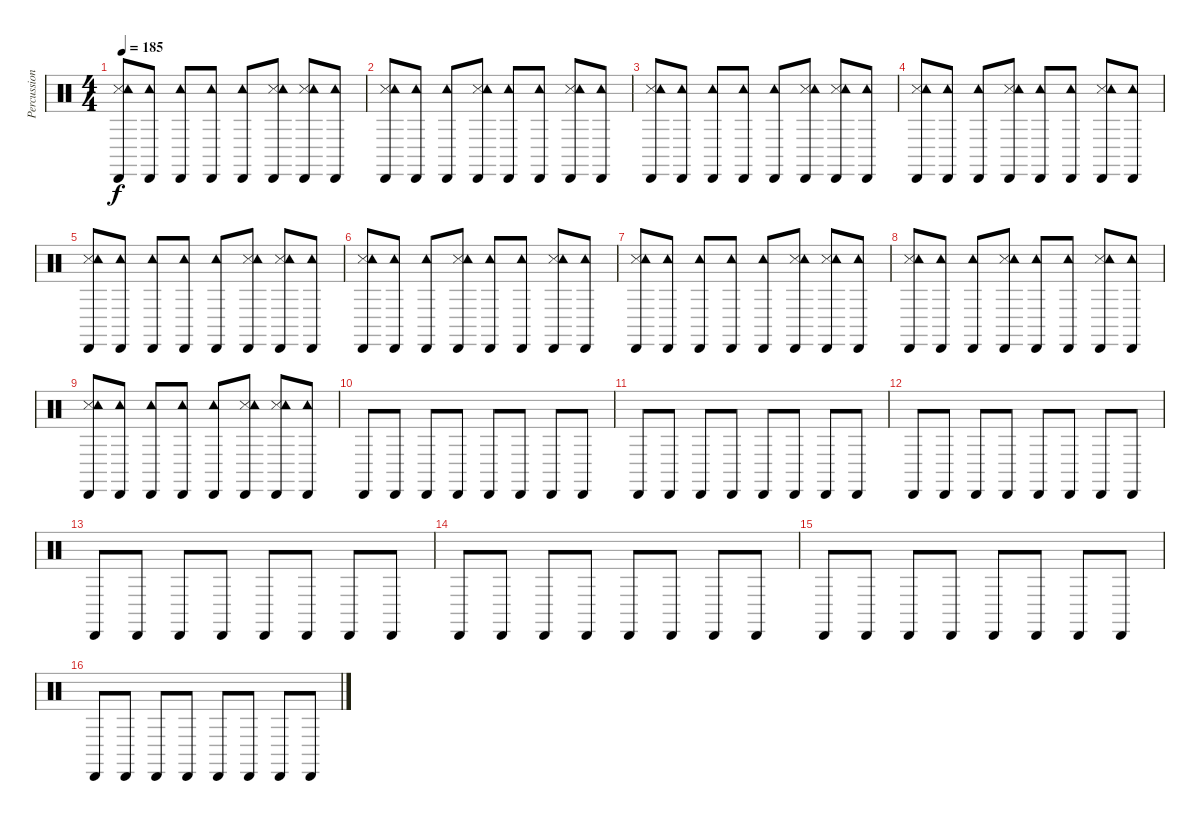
\track ("Percussion" "Percussion") {instrument percussion}
\staff {score}
\articulation defaults
\ts (4 4)
\tempo 185
\clef neutral
\ks c
("Cabasa (hit)" "Snare (side stick) 3" "Tambourine (hit)").8{dy f} ("Cabasa (hit)" "Tambourine (hit)").8 ("Cabasa (hit)" "Tambourine (hit)").8 ("Cabasa (hit)" "Tambourine (hit)").8 ("Cabasa (hit)" "Tambourine (hit)").8 ("Cabasa (hit)" "Snare (side stick) 3" "Tambourine (hit)").8 ("Cabasa (hit)" "Snare (side stick) 3" "Tambourine (hit)").8 ("Cabasa (hit)" "Tambourine (hit)").8 |
("Cabasa (hit)" "Snare (side stick) 3" "Tambourine (hit)").8 ("Cabasa (hit)" "Tambourine (hit)").8 ("Cabasa (hit)" "Tambourine (hit)").8 ("Cabasa (hit)" "Snare (side stick) 3" "Tambourine (hit)").8 ("Cabasa (hit)" "Tambourine (hit)").8 ("Cabasa (hit)" "Tambourine (hit)").8 ("Cabasa (hit)" "Snare (side stick) 3" "Tambourine (hit)").8 ("Cabasa (hit)" "Tambourine (hit)").8 |
("Cabasa (hit)" "Snare (side stick) 3" "Tambourine (hit)").8 ("Cabasa (hit)" "Tambourine (hit)").8 ("Cabasa (hit)" "Tambourine (hit)").8 ("Cabasa (hit)" "Tambourine (hit)").8 ("Cabasa (hit)" "Tambourine (hit)").8 ("Cabasa (hit)" "Snare (side stick) 3" "Tambourine (hit)").8 ("Cabasa (hit)" "Snare (side stick) 3" "Tambourine (hit)").8 ("Cabasa (hit)" "Tambourine (hit)").8 |
("Cabasa (hit)" "Snare (side stick) 3" "Tambourine (hit)").8 ("Cabasa (hit)" "Tambourine (hit)").8 ("Cabasa (hit)" "Tambourine (hit)").8 ("Cabasa (hit)" "Snare (side stick) 3" "Tambourine (hit)").8 ("Cabasa (hit)" "Tambourine (hit)").8 ("Cabasa (hit)" "Tambourine (hit)").8 ("Cabasa (hit)" "Snare (side stick) 3" "Tambourine (hit)").8 ("Cabasa (hit)" "Tambourine (hit)").8 |
("Cabasa (hit)" "Snare (side stick) 3" "Tambourine (hit)").8 ("Cabasa (hit)" "Tambourine (hit)").8 ("Cabasa (hit)" "Tambourine (hit)").8 ("Cabasa (hit)" "Tambourine (hit)").8 ("Cabasa (hit)" "Tambourine (hit)").8 ("Cabasa (hit)" "Snare (side stick) 3" "Tambourine (hit)").8 ("Cabasa (hit)" "Snare (side stick) 3" "Tambourine (hit)").8 ("Cabasa (hit)" "Tambourine (hit)").8 |
("Cabasa (hit)" "Snare (side stick) 3" "Tambourine (hit)").8 ("Cabasa (hit)" "Tambourine (hit)").8 ("Cabasa (hit)" "Tambourine (hit)").8 ("Cabasa (hit)" "Snare (side stick) 3" "Tambourine (hit)").8 ("Cabasa (hit)" "Tambourine (hit)").8 ("Cabasa (hit)" "Tambourine (hit)").8 ("Cabasa (hit)" "Snare (side stick) 3" "Tambourine (hit)").8 ("Cabasa (hit)" "Tambourine (hit)").8 |
("Cabasa (hit)" "Snare (side stick) 3" "Tambourine (hit)").8 ("Cabasa (hit)" "Tambourine (hit)").8 ("Cabasa (hit)" "Tambourine (hit)").8 ("Cabasa (hit)" "Tambourine (hit)").8 ("Cabasa (hit)" "Tambourine (hit)").8 ("Cabasa (hit)" "Snare (side stick) 3" "Tambourine (hit)").8 ("Cabasa (hit)" "Snare (side stick) 3" "Tambourine (hit)").8 ("Cabasa (hit)" "Tambourine (hit)").8 |
("Cabasa (hit)" "Snare (side stick) 3" "Tambourine (hit)").8 ("Cabasa (hit)" "Tambourine (hit)").8 ("Cabasa (hit)" "Tambourine (hit)").8 ("Cabasa (hit)" "Snare (side stick) 3" "Tambourine (hit)").8 ("Cabasa (hit)" "Tambourine (hit)").8 ("Cabasa (hit)" "Tambourine (hit)").8 ("Cabasa (hit)" "Snare (side stick) 3" "Tambourine (hit)").8 ("Cabasa (hit)" "Tambourine (hit)").8 |
("Cabasa (hit)" "Snare (side stick) 3" "Tambourine (hit)").8 ("Cabasa (hit)" "Tambourine (hit)").8 ("Cabasa (hit)" "Tambourine (hit)").8 ("Cabasa (hit)" "Tambourine (hit)").8 ("Cabasa (hit)" "Tambourine (hit)").8 ("Cabasa (hit)" "Snare (side stick) 3" "Tambourine (hit)").8 ("Cabasa (hit)" "Snare (side stick) 3" "Tambourine (hit)").8 ("Cabasa (hit)" "Tambourine (hit)").8 |
"Cabasa (hit)".8 "Cabasa (hit)".8 "Cabasa (hit)".8 "Cabasa (hit)".8 "Cabasa (hit)".8 "Cabasa (hit)".8 "Cabasa (hit)".8 "Cabasa (hit)".8 |
"Cabasa (hit)".8 "Cabasa (hit)".8 "Cabasa (hit)".8 "Cabasa (hit)".8 "Cabasa (hit)".8 "Cabasa (hit)".8 "Cabasa (hit)".8 "Cabasa (hit)".8 |
"Cabasa (hit)".8 "Cabasa (hit)".8 "Cabasa (hit)".8 "Cabasa (hit)".8 "Cabasa (hit)".8 "Cabasa (hit)".8 "Cabasa (hit)".8 "Cabasa (hit)".8 |
"Cabasa (hit)".8 "Cabasa (hit)".8 "Cabasa (hit)".8 "Cabasa (hit)".8 "Cabasa (hit)".8 "Cabasa (hit)".8 "Cabasa (hit)".8 "Cabasa (hit)".8 |
"Cabasa (hit)".8 "Cabasa (hit)".8 "Cabasa (hit)".8 "Cabasa (hit)".8 "Cabasa (hit)".8 "Cabasa (hit)".8 "Cabasa (hit)".8 "Cabasa (hit)".8 |
"Cabasa (hit)".8 "Cabasa (hit)".8 "Cabasa (hit)".8 "Cabasa (hit)".8 "Cabasa (hit)".8 "Cabasa (hit)".8 "Cabasa (hit)".8 "Cabasa (hit)".8 |
"Cabasa (hit)".8 "Cabasa (hit)".8 "Cabasa (hit)".8 "Cabasa (hit)".8 "Cabasa (hit)".8 "Cabasa (hit)".8 "Cabasa (hit)".8 "Cabasa (hit)".8
